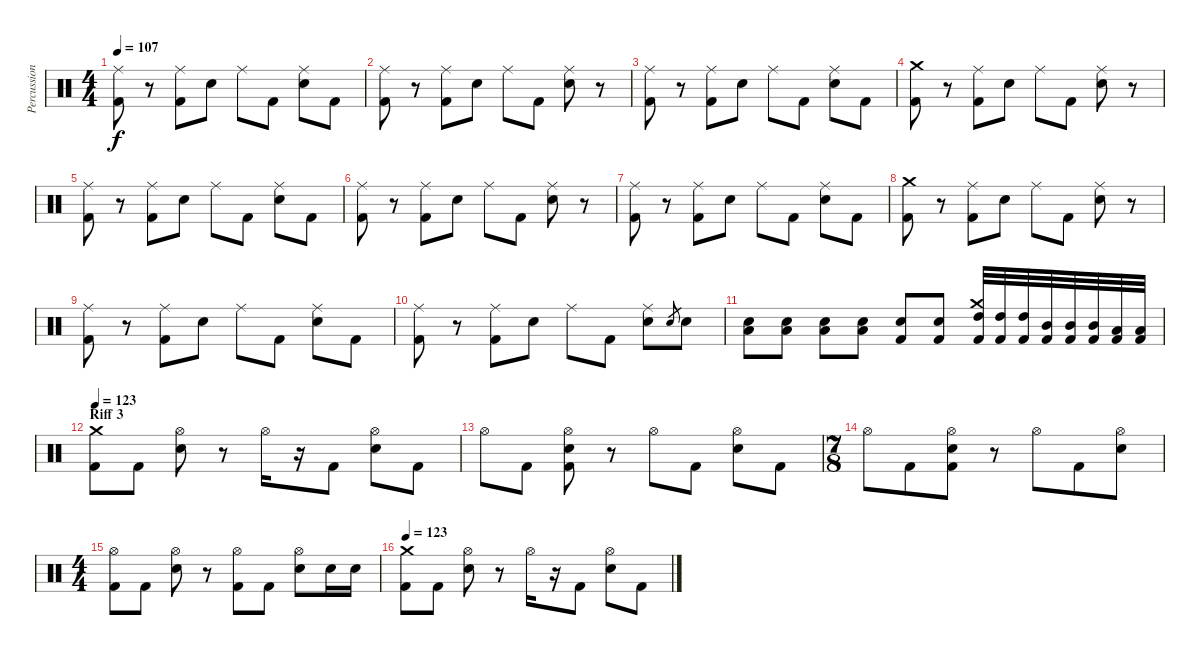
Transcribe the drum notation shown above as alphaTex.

\track ("Percussions" "Percussion") {instrument percussion}
\staff {score}
\articulation defaults
\ts (4 4)
\tempo 107
\clef neutral
\ks c
("Ride (middle)" "Kick (hit) 2").8{dy f} r.8 ("Ride (middle)" "Kick (hit) 2").8 "Electric Snare (hit)".8 "Ride (middle)".8 "Kick (hit) 2".8 ("Ride (middle)" "Electric Snare (hit)").8 "Kick (hit) 2".8 |
("Ride (middle)" "Kick (hit) 2").8 r.8 ("Ride (middle)" "Kick (hit) 2").8 "Electric Snare (hit)".8 "Ride (middle)".8 "Kick (hit) 2".8 ("Ride (middle)" "Electric Snare (hit)").8 r.8 |
("Ride (middle)" "Kick (hit) 2").8 r.8 ("Ride (middle)" "Kick (hit) 2").8 "Electric Snare (hit)".8 "Ride (middle)".8 "Kick (hit) 2".8 ("Ride (middle)" "Electric Snare (hit)").8 "Kick (hit) 2".8 |
("Crash medium (hit)" "Kick (hit) 2").8 r.8 ("Ride (middle)" "Kick (hit) 2").8 "Electric Snare (hit)".8 "Ride (middle)".8 "Kick (hit) 2".8 ("Ride (middle)" "Electric Snare (hit)").8 r.8 |
("Ride (middle)" "Kick (hit) 2").8 r.8 ("Ride (middle)" "Kick (hit) 2").8 "Electric Snare (hit)".8 "Ride (middle)".8 "Kick (hit) 2".8 ("Ride (middle)" "Electric Snare (hit)").8 "Kick (hit) 2".8 |
("Ride (middle)" "Kick (hit) 2").8 r.8 ("Ride (middle)" "Kick (hit) 2").8 "Electric Snare (hit)".8 "Ride (middle)".8 "Kick (hit) 2".8 ("Ride (middle)" "Electric Snare (hit)").8 r.8 |
("Ride (middle)" "Kick (hit) 2").8 r.8 ("Ride (middle)" "Kick (hit) 2").8 "Electric Snare (hit)".8 "Ride (middle)".8 "Kick (hit) 2".8 ("Ride (middle)" "Electric Snare (hit)").8 "Kick (hit) 2".8 |
("Crash medium (hit)" "Kick (hit) 2").8 r.8 ("Ride (middle)" "Kick (hit) 2").8 "Electric Snare (hit)".8 "Ride (middle)".8 "Kick (hit) 2".8 ("Ride (middle)" "Electric Snare (hit)").8 r.8 |
("Ride (middle)" "Kick (hit) 2").8 r.8 ("Ride (middle)" "Kick (hit) 2").8 "Electric Snare (hit)".8 "Ride (middle)".8 "Kick (hit) 2".8 ("Ride (middle)" "Electric Snare (hit)").8 "Kick (hit) 2".8 |
("Ride (middle)" "Kick (hit) 2").8 r.8 ("Ride (middle)" "Kick (hit) 2").8 "Electric Snare (hit)".8 "Ride (middle)".8 "Kick (hit) 2".8 ("Ride (middle)" "Electric Snare (hit)").8 "Electric Snare (hit)".8{gr} "Electric Snare (hit)".8 |
("Low Tom (hit)" "Electric Snare (hit)").8 ("Low Tom (hit)" "Electric Snare (hit)").8 ("Low Tom (hit)" "Electric Snare (hit)").8 ("Low Tom (hit)" "Electric Snare (hit)").8 ("Electric Snare (hit)" "Kick (hit) 2").8 ("Electric Snare (hit)" "Kick (hit) 2").8 ("Crash medium (hit)" "High Tom (hit)" "Kick (hit) 2").32 ("High Tom (hit)" "Kick (hit) 2").32 ("High Tom (hit)" "Kick (hit) 2").32 ("Mid Tom (hit)" "Kick (hit) 2").32 ("Mid Tom (hit)" "Kick (hit) 2").32 ("Mid Tom (hit)" "Kick (hit) 2").32 ("Low Tom (hit)" "Kick (hit) 2").32 ("Low Tom (hit)" "Kick (hit) 2").32 |
\section ("" "Riff 3")
\tempo 123
("Crash medium (hit)" "Kick (hit) 2").8 "Kick (hit) 2".8 ("Hi-Hat (open)" "Electric Snare (hit)").8 r.8 "Hi-Hat (open)".16 r.16 "Kick (hit) 2".8 ("Hi-Hat (open)" "Electric Snare (hit)").8 "Kick (hit) 2".8 |
"Hi-Hat (open)".8 "Kick (hit) 2".8 ("Hi-Hat (open)" "Electric Snare (hit)" "Kick (hit) 2").8 r.8 "Hi-Hat (open)".8 "Kick (hit) 2".8 ("Hi-Hat (open)" "Electric Snare (hit)").8 "Kick (hit) 2".8 |
\ts (7 8)
"Hi-Hat (open)".8 "Kick (hit) 2".8 ("Hi-Hat (open)" "Electric Snare (hit)" "Kick (hit) 2").8 r.8 "Hi-Hat (open)".8 "Kick (hit) 2".8 ("Hi-Hat (open)" "Electric Snare (hit)").8 |
\ts (4 4)
("Hi-Hat (open)" "Kick (hit) 2").8 "Kick (hit) 2".8 ("Hi-Hat (open)" "Electric Snare (hit)").8 r.8 ("Hi-Hat (open)" "Kick (hit) 2").8 "Kick (hit) 2".8 ("Hi-Hat (open)" "Electric Snare (hit)").8 "Electric Snare (hit)".16 "Electric Snare (hit)".16 |
\tempo 123
("Crash medium (hit)" "Kick (hit) 2").8 "Kick (hit) 2".8 ("Hi-Hat (open)" "Electric Snare (hit)").8 r.8 "Hi-Hat (open)".16 r.16 "Kick (hit) 2".8 ("Hi-Hat (open)" "Electric Snare (hit)").8 "Kick (hit) 2".8
